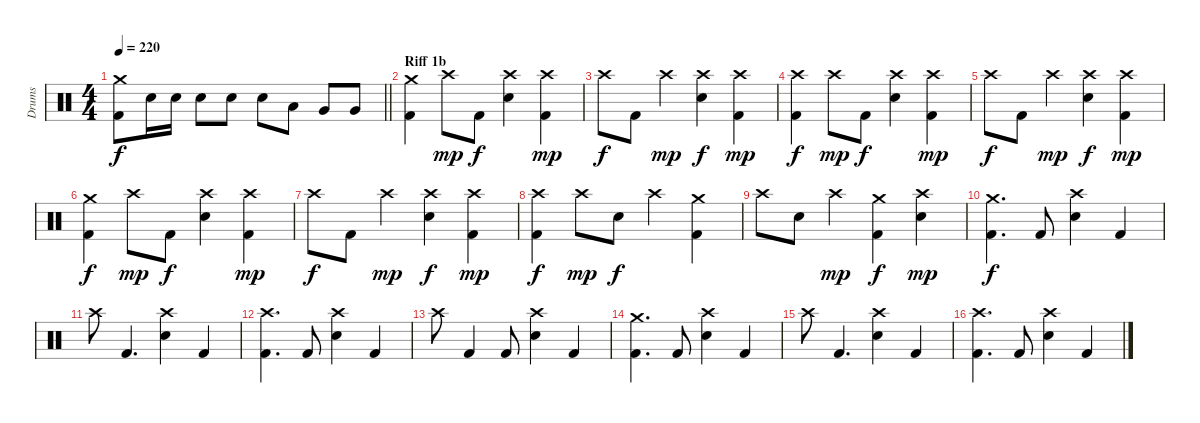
\track ("Drums" "Drums") {instrument percussion}
\staff {score}
\articulation defaults
\ts (4 4)
\tempo 220
\clef neutral
\barLineRight lightlight
\ks c
("Crash medium (hit)" "Kick (hit) 2").8{dy f} "Electric Snare (hit)".16 "Electric Snare (hit)".16 "Electric Snare (hit)".8 "Electric Snare (hit)".8 "Electric Snare (hit)".8 "Low Tom (hit)".8 "Very Low Tom (hit)".8 "Very Low Tom (hit)".8 |
\section ("" "Riff 1b")
("Kick (hit) 2" "Crash medium (hit)").4 "Crash high (hit)".8{dy mp} "Kick (hit) 2".8{dy f} ("Crash high (hit)" "Electric Snare (hit)").4 ("Crash high (hit)" "Kick (hit) 2").4{dy mp} |
"Crash high (hit)".8{dy f} "Kick (hit) 2".8 "Crash high (hit)".4{dy mp} ("Electric Snare (hit)" "Crash high (hit)").4{dy f} ("Kick (hit) 2" "Crash high (hit)").4{dy mp} |
("Kick (hit) 2" "Crash high (hit)").4{dy f} "Crash high (hit)".8{dy mp} "Kick (hit) 2".8{dy f} ("Crash high (hit)" "Electric Snare (hit)").4 ("Crash high (hit)" "Kick (hit) 2").4{dy mp} |
"Crash high (hit)".8{dy f} "Kick (hit) 2".8 "Crash high (hit)".4{dy mp} ("Electric Snare (hit)" "Crash high (hit)").4{dy f} ("Kick (hit) 2" "Crash high (hit)").4{dy mp} |
("Kick (hit) 2" "Crash medium (hit)").4{dy f} "Crash high (hit)".8{dy mp} "Kick (hit) 2".8{dy f} ("Crash high (hit)" "Electric Snare (hit)").4 ("Crash high (hit)" "Kick (hit) 2").4{dy mp} |
"Crash high (hit)".8{dy f} "Kick (hit) 2".8 "Crash high (hit)".4{dy mp} ("Electric Snare (hit)" "Crash high (hit)").4{dy f} ("Kick (hit) 2" "Crash high (hit)").4{dy mp} |
("Crash high (hit)" "Kick (hit) 2").4{dy f} "Crash high (hit)".8{dy mp} "Electric Snare (hit)".8{dy f} "Crash high (hit)".4 ("Kick (hit) 2" "Crash medium (hit)").4 |
"Crash high (hit)".8 "Electric Snare (hit)".8 "Crash high (hit)".4{dy mp} ("Kick (hit) 2" "Crash medium (hit)").4{dy f} ("Electric Snare (hit)" "Crash high (hit)").4{dy mp} |
("Crash medium (hit)" "Kick (hit) 2").4{d dy f} "Kick (hit) 2".8 ("Crash high (hit)" "Electric Snare (hit)").4 "Kick (hit) 2".4 |
"Crash high (hit)".8 "Kick (hit) 2".4{d} ("Electric Snare (hit)" "Crash high (hit)").4 "Kick (hit) 2".4 |
("Crash high (hit)" "Kick (hit) 2").4{d} "Kick (hit) 2".8 ("Crash high (hit)" "Electric Snare (hit)").4 "Kick (hit) 2".4 |
"Crash high (hit)".8 "Kick (hit) 2".4 "Kick (hit) 2".8 ("Electric Snare (hit)" "Crash high (hit)").4 "Kick (hit) 2".4 |
("Crash medium (hit)" "Kick (hit) 2").4{d} "Kick (hit) 2".8 ("Crash high (hit)" "Electric Snare (hit)").4 "Kick (hit) 2".4 |
"Crash high (hit)".8 "Kick (hit) 2".4{d} ("Electric Snare (hit)" "Crash high (hit)").4 "Kick (hit) 2".4 |
("Crash high (hit)" "Kick (hit) 2").4{d} "Kick (hit) 2".8 ("Crash high (hit)" "Electric Snare (hit)").4 "Kick (hit) 2".4
